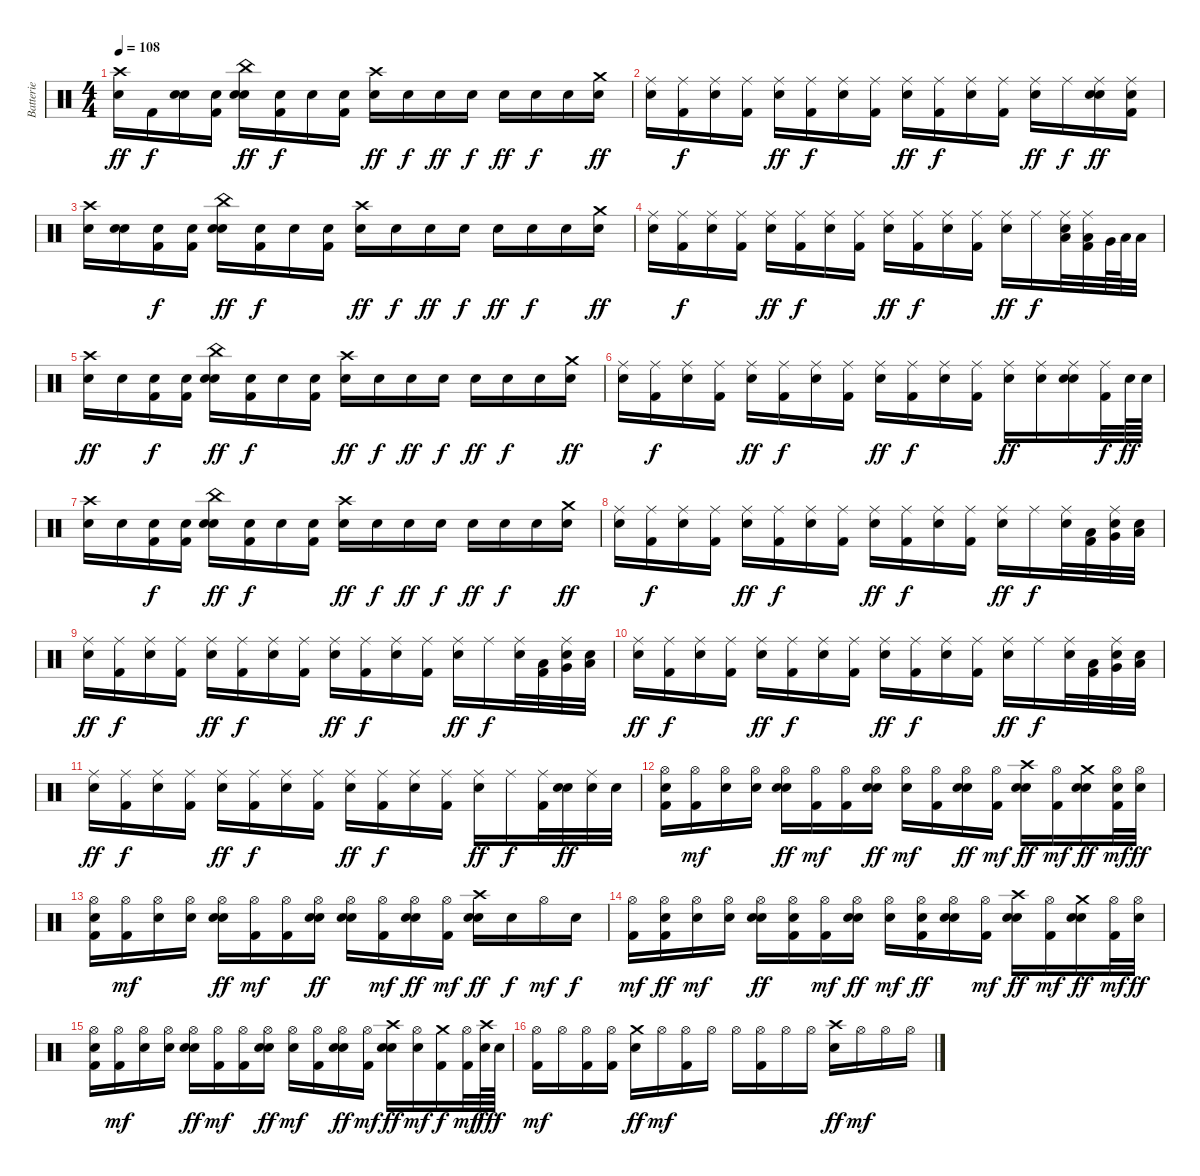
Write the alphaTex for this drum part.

\track ("Batterie" "Batterie") {instrument percussion}
\staff {score}
\articulation defaults
\ts (4 4)
\tempo 108
\clef neutral
\ks c
("Crash high (hit)" "Snare (hit) 2").16{dy ff} "Kick (hit) 2".16{dy f} ("Snare (hit)" "Snare (hit)").16 ("Snare (hit)" "Kick (hit) 2").16 ("China (hit)" "Snare (hit) 2" "Snare (hit)").16{dy ff} ("Snare (hit)" "Kick (hit) 2").16{dy f} "Snare (hit)".16 ("Snare (hit)" "Kick (hit) 2").16 ("Crash high (hit)" "Snare (hit) 2").16{dy ff} "Snare (hit)".16{dy f} "Snare (hit) 2".16{dy ff} "Snare (hit)".16{dy f} "Snare (hit) 2".16{dy ff} "Snare (hit)".16{dy f} "Snare (hit) 2".16 ("Crash medium (hit)" "Snare (hit) 2").16{dy ff} |
("Ride (middle)" "Snare (hit) 2").16 ("Ride (middle)" "Kick (hit) 2").16{dy f} ("Ride (middle)" "Snare (hit)").16 ("Ride (middle)" "Kick (hit) 2").16 ("Ride (middle)" "Snare (hit) 2").16{dy ff} ("Ride (middle)" "Kick (hit) 2").16{dy f} ("Ride (middle)" "Snare (hit)").16 ("Ride (middle)" "Kick (hit) 2").16 ("Ride (middle)" "Snare (hit) 2").16{dy ff} ("Ride (middle)" "Kick (hit) 2").16{dy f} ("Ride (middle)" "Snare (hit)").16 ("Ride (middle)" "Kick (hit) 2").16 ("Ride (middle)" "Snare (hit) 2").16{dy ff} "Ride (middle)".16{dy f} ("Ride (middle)" "Snare (hit) 2" "Snare (hit)").16{dy ff} ("Ride (middle)" "Snare (hit) 2" "Kick (hit) 2").16 |
("Crash high (hit)" "Snare (hit) 2").16 ("Snare (hit) 2" "Snare (hit)").16 ("Snare (hit)" "Kick (hit) 2").16{dy f} ("Snare (hit)" "Kick (hit) 2").16 ("China (hit)" "Snare (hit) 2" "Snare (hit)").16{dy ff} ("Snare (hit)" "Kick (hit) 2").16{dy f} "Snare (hit)".16 ("Snare (hit)" "Kick (hit) 2").16 ("Crash high (hit)" "Snare (hit) 2").16{dy ff} "Snare (hit)".16{dy f} "Snare (hit) 2".16{dy ff} "Snare (hit)".16{dy f} "Snare (hit) 2".16{dy ff} "Snare (hit) 2".16{dy f} "Snare (hit)".16 ("Crash medium (hit)" "Snare (hit) 2").16{dy ff} |
("Ride (middle)" "Snare (hit) 2").16 ("Ride (middle)" "Kick (hit) 2").16{dy f} ("Ride (middle)" "Snare (hit)").16 ("Ride (middle)" "Kick (hit) 2").16 ("Ride (middle)" "Snare (hit) 2").16{dy ff} ("Ride (middle)" "Kick (hit) 2").16{dy f} ("Ride (middle)" "Snare (hit)").16 ("Ride (middle)" "Kick (hit) 2").16 ("Ride (middle)" "Snare (hit) 2").16{dy ff} ("Ride (middle)" "Kick (hit) 2").16{dy f} ("Ride (middle)" "Snare (hit)").16 ("Ride (middle)" "Kick (hit) 2").16 ("Ride (middle)" "Snare (hit) 2").16{dy ff} "Ride (middle)".16{dy f} ("Low Tom (hit)" "Ride (middle)" "Snare (hit)").32 ("Low Tom (hit)" "Ride (middle)" "Kick (hit) 2").32 "Very Low Tom (hit)".64 "Low Floor Tom (hit)".64 "Low Floor Tom (hit)".32 |
("Crash high (hit)" "Snare (hit) 2").16{dy ff} "Snare (hit) 2".16 ("Snare (hit)" "Kick (hit) 2").16{dy f} ("Snare (hit)" "Kick (hit) 2").16 ("China (hit)" "Snare (hit) 2" "Snare (hit)").16{dy ff} ("Snare (hit)" "Kick (hit) 2").16{dy f} "Snare (hit)".16 ("Snare (hit)" "Kick (hit) 2").16 ("Crash high (hit)" "Snare (hit) 2").16{dy ff} "Snare (hit)".16{dy f} "Snare (hit) 2".16{dy ff} "Snare (hit)".16{dy f} "Snare (hit) 2".16{dy ff} "Snare (hit) 2".16{dy f} "Snare (hit)".16 ("Crash medium (hit)" "Snare (hit) 2").16{dy ff} |
("Ride (middle)" "Snare (hit) 2").16 ("Ride (middle)" "Kick (hit) 2").16{dy f} ("Ride (middle)" "Snare (hit)").16 ("Ride (middle)" "Kick (hit) 2").16 ("Ride (middle)" "Snare (hit) 2").16{dy ff} ("Ride (middle)" "Kick (hit) 2").16{dy f} ("Ride (middle)" "Snare (hit)").16 ("Ride (middle)" "Kick (hit) 2").16 ("Ride (middle)" "Snare (hit) 2").16{dy ff} ("Ride (middle)" "Kick (hit) 2").16{dy f} ("Ride (middle)" "Snare (hit)").16 ("Ride (middle)" "Kick (hit) 2").16 ("Ride (middle)" "Snare (hit) 2").16{dy ff} ("Ride (middle)" "Snare (hit)").16 ("Ride (middle)" "Snare (hit)" "Snare (hit)").16 ("Ride (middle)" "Kick (hit) 2").32{dy f} "Snare (hit) 2".64{dy ff} "Snare (hit) 2".64 |
("Crash high (hit)" "Snare (hit) 2").16 "Snare (hit) 2".16 ("Snare (hit)" "Kick (hit) 2").16{dy f} ("Snare (hit)" "Kick (hit) 2").16 ("China (hit)" "Snare (hit) 2" "Snare (hit)").16{dy ff} ("Snare (hit)" "Kick (hit) 2").16{dy f} "Snare (hit)".16 ("Snare (hit)" "Kick (hit) 2").16 ("Crash high (hit)" "Snare (hit) 2").16{dy ff} "Snare (hit)".16{dy f} "Snare (hit) 2".16{dy ff} "Snare (hit)".16{dy f} "Snare (hit) 2".16{dy ff} "Snare (hit) 2".16{dy f} "Snare (hit)".16 ("Crash medium (hit)" "Snare (hit) 2").16{dy ff} |
("Ride (middle)" "Snare (hit) 2").16 ("Ride (middle)" "Kick (hit) 2").16{dy f} ("Ride (middle)" "Snare (hit)").16 ("Ride (middle)" "Kick (hit) 2").16 ("Ride (middle)" "Snare (hit) 2").16{dy ff} ("Ride (middle)" "Kick (hit) 2").16{dy f} ("Ride (middle)" "Snare (hit)").16 ("Ride (middle)" "Kick (hit) 2").16 ("Ride (middle)" "Snare (hit) 2").16{dy ff} ("Ride (middle)" "Kick (hit) 2").16{dy f} ("Ride (middle)" "Snare (hit)").16 ("Ride (middle)" "Kick (hit) 2").16 ("Ride (middle)" "Snare (hit) 2").16{dy ff} "Ride (middle)".16{dy f} ("Ride (middle)" "Snare (hit)").32 ("Low Tom (hit)" "Kick (hit) 2").32 ("Very Low Tom (hit)" "Ride (middle)" "Snare (hit)").32 ("Low Floor Tom (hit)" "Snare (hit)").32 |
("Ride (middle)" "Snare (hit) 2").16{dy ff} ("Ride (middle)" "Kick (hit) 2").16{dy f} ("Ride (middle)" "Snare (hit)").16 ("Ride (middle)" "Kick (hit) 2").16 ("Ride (middle)" "Snare (hit) 2").16{dy ff} ("Ride (middle)" "Kick (hit) 2").16{dy f} ("Ride (middle)" "Snare (hit)").16 ("Ride (middle)" "Kick (hit) 2").16 ("Ride (middle)" "Snare (hit) 2").16{dy ff} ("Ride (middle)" "Kick (hit) 2").16{dy f} ("Ride (middle)" "Snare (hit)").16 ("Ride (middle)" "Kick (hit) 2").16 ("Ride (middle)" "Snare (hit) 2").16{dy ff} "Ride (middle)".16{dy f} ("Ride (middle)" "Snare (hit)").32 ("Low Tom (hit)" "Kick (hit) 2").32 ("Very Low Tom (hit)" "Ride (middle)" "Snare (hit)").32 ("Low Floor Tom (hit)" "Snare (hit)").32 |
("Ride (middle)" "Snare (hit) 2").16{dy ff} ("Ride (middle)" "Kick (hit) 2").16{dy f} ("Ride (middle)" "Snare (hit)").16 ("Ride (middle)" "Kick (hit) 2").16 ("Ride (middle)" "Snare (hit) 2").16{dy ff} ("Ride (middle)" "Kick (hit) 2").16{dy f} ("Ride (middle)" "Snare (hit)").16 ("Ride (middle)" "Kick (hit) 2").16 ("Ride (middle)" "Snare (hit) 2").16{dy ff} ("Ride (middle)" "Kick (hit) 2").16{dy f} ("Ride (middle)" "Snare (hit)").16 ("Ride (middle)" "Kick (hit) 2").16 ("Ride (middle)" "Snare (hit) 2").16{dy ff} "Ride (middle)".16{dy f} ("Ride (middle)" "Snare (hit)").32 ("Low Tom (hit)" "Kick (hit) 2").32 ("Very Low Tom (hit)" "Ride (middle)" "Snare (hit)").32 ("Low Floor Tom (hit)" "Snare (hit)").32 |
("Ride (middle)" "Snare (hit) 2").16{dy ff} ("Ride (middle)" "Kick (hit) 2").16{dy f} ("Ride (middle)" "Snare (hit)").16 ("Ride (middle)" "Kick (hit) 2").16 ("Ride (middle)" "Snare (hit) 2").16{dy ff} ("Ride (middle)" "Kick (hit) 2").16{dy f} ("Ride (middle)" "Snare (hit)").16 ("Ride (middle)" "Kick (hit) 2").16 ("Ride (middle)" "Snare (hit) 2").16{dy ff} ("Ride (middle)" "Kick (hit) 2").16{dy f} ("Ride (middle)" "Snare (hit)").16 ("Ride (middle)" "Kick (hit) 2").16 ("Ride (middle)" "Snare (hit) 2").16{dy ff} "Ride (middle)".16{dy f} ("Ride (middle)" "Kick (hit) 2").32 ("Snare (hit) 2" "Snare (hit)").32{dy ff} ("Ride (middle)" "Snare (hit) 2").32 "Snare (hit) 2".32 |
("Hi-Hat (open)" "Snare (hit) 2" "Kick (hit) 2").16 ("Hi-Hat (open)" "Kick (hit) 2").16{dy mf} ("Hi-Hat (open)" "Snare (hit)").16 ("Hi-Hat (open)" "Snare (hit)").16 ("Hi-Hat (open)" "Snare (hit) 2" "Snare (hit)").16{dy ff} ("Hi-Hat (open)" "Kick (hit) 2").16{dy mf} ("Hi-Hat (open)" "Kick (hit) 2").16 ("Hi-Hat (open)" "Snare (hit) 2" "Snare (hit)").16{dy ff} ("Hi-Hat (open)" "Snare (hit)").16{dy mf} ("Hi-Hat (open)" "Kick (hit) 2").16 ("Hi-Hat (open)" "Snare (hit) 2" "Snare (hit)").16{dy ff} ("Hi-Hat (open)" "Kick (hit) 2").16{dy mf} ("Crash high (hit)" "Snare (hit) 2" "Snare (hit)").16{dy ff} ("Hi-Hat (open)" "Kick (hit) 2").16{dy mf} ("Crash medium (hit)" "Snare (hit) 2" "Snare (hit)").16{dy ff} ("Hi-Hat (open)" "Snare (hit) 2" "Kick (hit) 2").32{dy mf} ("Hi-Hat (open)" "Snare (hit) 2").32{dy ff} |
("Hi-Hat (open)" "Snare (hit) 2" "Kick (hit) 2").16 ("Hi-Hat (open)" "Kick (hit) 2").16{dy mf} ("Hi-Hat (open)" "Snare (hit)").16 ("Hi-Hat (open)" "Snare (hit)").16 ("Hi-Hat (open)" "Snare (hit) 2" "Snare (hit)").16{dy ff} ("Hi-Hat (open)" "Kick (hit) 2").16{dy mf} ("Hi-Hat (open)" "Kick (hit) 2").16 ("Hi-Hat (open)" "Snare (hit) 2" "Snare (hit)").16{dy ff} ("Hi-Hat (open)" "Snare (hit) 2" "Snare (hit)").16 ("Hi-Hat (open)" "Kick (hit) 2").16{dy mf} ("Hi-Hat (open)" "Snare (hit) 2" "Snare (hit)").16{dy ff} ("Hi-Hat (open)" "Kick (hit) 2").16{dy mf} ("Crash high (hit)" "Snare (hit) 2" "Snare (hit)").16{dy ff} "Snare (hit)".16{dy f} "Hi-Hat (open)".16{dy mf} "Snare (hit)".16{dy f} |
("Hi-Hat (open)" "Kick (hit) 2").16{dy mf} ("Hi-Hat (open)" "Snare (hit) 2" "Kick (hit) 2").16{dy ff} ("Hi-Hat (open)" "Snare (hit)").16{dy mf} ("Hi-Hat (open)" "Snare (hit)").16 ("Hi-Hat (open)" "Snare (hit) 2" "Snare (hit)").16{dy ff} ("Hi-Hat (open)" "Snare (hit) 2" "Kick (hit) 2").16 ("Hi-Hat (open)" "Kick (hit) 2").16{dy mf} ("Hi-Hat (open)" "Snare (hit) 2" "Snare (hit)").16{dy ff} ("Hi-Hat (open)" "Snare (hit)").16{dy mf} ("Hi-Hat (open)" "Snare (hit) 2" "Kick (hit) 2").16{dy ff} ("Hi-Hat (open)" "Snare (hit) 2" "Snare (hit)").16 ("Hi-Hat (open)" "Kick (hit) 2").16{dy mf} ("Crash high (hit)" "Snare (hit) 2" "Snare (hit)").16{dy ff} ("Hi-Hat (open)" "Kick (hit) 2").16{dy mf} ("Crash medium (hit)" "Snare (hit) 2" "Snare (hit)").16{dy ff} ("Hi-Hat (open)" "Kick (hit) 2").32{dy mf} ("Hi-Hat (open)" "Snare (hit) 2").32{dy ff} |
("Hi-Hat (open)" "Snare (hit) 2" "Kick (hit) 2").16 ("Hi-Hat (open)" "Kick (hit) 2").16{dy mf} ("Hi-Hat (open)" "Snare (hit)").16 ("Hi-Hat (open)" "Snare (hit)").16 ("Hi-Hat (open)" "Snare (hit) 2" "Snare (hit)").16{dy ff} ("Hi-Hat (open)" "Kick (hit) 2").16{dy mf} ("Hi-Hat (open)" "Kick (hit) 2").16 ("Hi-Hat (open)" "Snare (hit) 2" "Snare (hit)").16{dy ff} ("Hi-Hat (open)" "Snare (hit)").16{dy mf} ("Hi-Hat (open)" "Kick (hit) 2").16 ("Hi-Hat (open)" "Snare (hit) 2" "Snare (hit)").16{dy ff} ("Hi-Hat (open)" "Kick (hit) 2").16{dy mf} ("Crash high (hit)" "Snare (hit) 2" "Snare (hit)").16{dy ff} ("Hi-Hat (open)" "Snare (hit)").16{dy mf} ("Crash medium (hit)" "Kick (hit) 2").16{dy f} ("Hi-Hat (open)" "Kick (hit) 2").32{dy mf} ("Crash high (hit)" "Snare (hit) 2").64{dy ff} "Snare (hit) 2".64{dy f} |
("Hi-Hat (open)" "Kick (hit) 2").16{dy mf} "Hi-Hat (open)".16 ("Hi-Hat (open)" "Kick (hit) 2").16 ("Hi-Hat (open)" "Kick (hit) 2").16 ("Crash medium (hit)" "Snare (hit) 2").16{dy ff} "Hi-Hat (open)".16{dy mf} ("Hi-Hat (open)" "Kick (hit) 2").16 "Hi-Hat (open)".16 "Hi-Hat (open)".16 ("Hi-Hat (open)" "Kick (hit) 2").16 "Hi-Hat (open)".16 "Hi-Hat (open)".16 ("Crash high (hit)" "Snare (hit) 2").16{dy ff} "Hi-Hat (open)".16{dy mf} "Hi-Hat (open)".16 "Hi-Hat (open)".16
